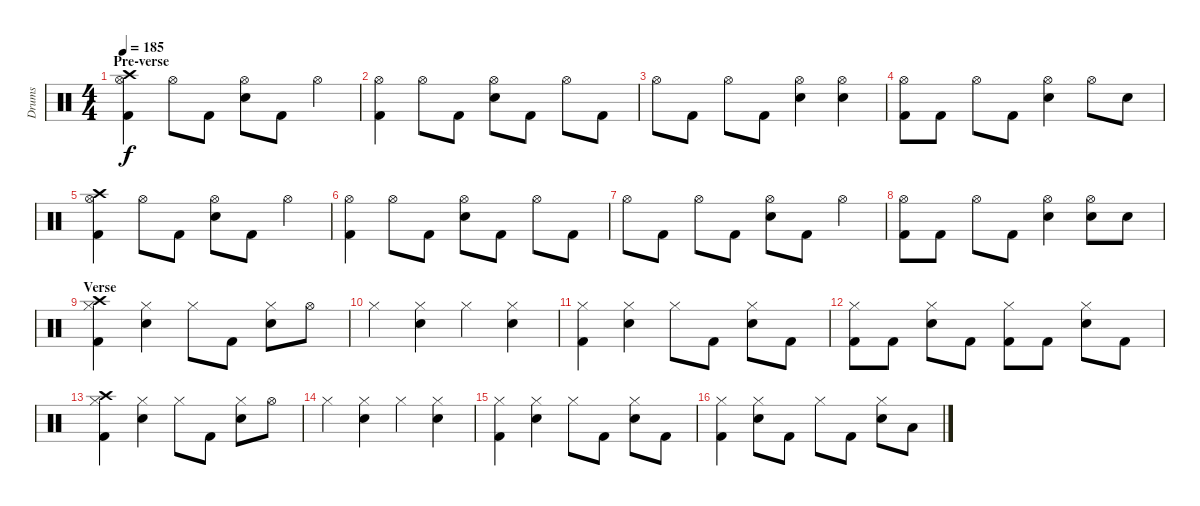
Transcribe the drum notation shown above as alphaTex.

\track ("Drums" "Drums") {instrument percussion}
\staff {score}
\articulation defaults
\ts (4 4)
\section ("" "Pre-verse")
\tempo 185
\clef neutral
\ks c
("Hi-Hat (open)" "Kick (hit) 2" "Crash high (hit)").4{dy f} "Hi-Hat (open)".8 "Kick (hit) 2".8 ("Hi-Hat (open)" "Electric Snare (hit)").8 "Kick (hit) 2".8 "Hi-Hat (open)".4 |
("Hi-Hat (open)" "Kick (hit) 2").4 "Hi-Hat (open)".8 "Kick (hit) 2".8 ("Hi-Hat (open)" "Electric Snare (hit)").8 "Kick (hit) 2".8 "Hi-Hat (open)".8 "Kick (hit) 2".8 |
"Hi-Hat (open)".8 "Kick (hit) 2".8 "Hi-Hat (open)".8 "Kick (hit) 2".8 ("Hi-Hat (open)" "Electric Snare (hit)").4 ("Hi-Hat (open)" "Electric Snare (hit)").4 |
("Hi-Hat (open)" "Kick (hit) 2").8 "Kick (hit) 2".8 "Hi-Hat (open)".8 "Kick (hit) 2".8 ("Hi-Hat (open)" "Electric Snare (hit)").4 "Hi-Hat (open)".8 "Electric Snare (hit)".8 |
("Hi-Hat (open)" "Kick (hit) 2" "Crash high (hit)").4 "Hi-Hat (open)".8 "Kick (hit) 2".8 ("Hi-Hat (open)" "Electric Snare (hit)").8 "Kick (hit) 2".8 "Hi-Hat (open)".4 |
("Hi-Hat (open)" "Kick (hit) 2").4 "Hi-Hat (open)".8 "Kick (hit) 2".8 ("Hi-Hat (open)" "Electric Snare (hit)").8 "Kick (hit) 2".8 "Hi-Hat (open)".8 "Kick (hit) 2".8 |
"Hi-Hat (open)".8 "Kick (hit) 2".8 "Hi-Hat (open)".8 "Kick (hit) 2".8 ("Hi-Hat (open)" "Electric Snare (hit)").8 "Kick (hit) 2".8 "Hi-Hat (open)".4 |
("Hi-Hat (open)" "Kick (hit) 2").8 "Kick (hit) 2".8 "Hi-Hat (open)".8 "Kick (hit) 2".8 ("Hi-Hat (open)" "Electric Snare (hit)").4 ("Hi-Hat (open)" "Electric Snare (hit)").8 "Electric Snare (hit)".8 |
\section ("" "Verse")
("Hi-Hat (closed)" "Kick (hit) 2" "Crash high (hit)").4 ("Hi-Hat (closed)" "Electric Snare (hit)").4 "Hi-Hat (closed)".8 "Kick (hit) 2".8 ("Hi-Hat (closed)" "Electric Snare (hit)").8 "Hi-Hat (open)".8 |
"Hi-Hat (closed)".4 ("Hi-Hat (closed)" "Electric Snare (hit)").4 "Hi-Hat (closed)".4 ("Hi-Hat (closed)" "Electric Snare (hit)").4 |
("Hi-Hat (closed)" "Kick (hit) 2").4 ("Hi-Hat (closed)" "Electric Snare (hit)").4 "Hi-Hat (closed)".8 "Kick (hit) 2".8 ("Hi-Hat (closed)" "Electric Snare (hit)").8 "Kick (hit) 2".8 |
("Hi-Hat (closed)" "Kick (hit) 2").8 "Kick (hit) 2".8 ("Hi-Hat (closed)" "Electric Snare (hit)").8 "Kick (hit) 2".8 ("Hi-Hat (closed)" "Kick (hit) 2").8 "Kick (hit) 2".8 ("Hi-Hat (closed)" "Electric Snare (hit)").8 "Kick (hit) 2".8 |
("Hi-Hat (closed)" "Kick (hit) 2" "Crash high (hit)").4 ("Hi-Hat (closed)" "Electric Snare (hit)").4 "Hi-Hat (closed)".8 "Kick (hit) 2".8 ("Hi-Hat (closed)" "Electric Snare (hit)").8 "Hi-Hat (open)".8 |
"Hi-Hat (closed)".4 ("Hi-Hat (closed)" "Electric Snare (hit)").4 "Hi-Hat (closed)".4 ("Hi-Hat (closed)" "Electric Snare (hit)").4 |
("Hi-Hat (closed)" "Kick (hit) 2").4 ("Hi-Hat (closed)" "Electric Snare (hit)").4 "Hi-Hat (closed)".8 "Kick (hit) 2".8 ("Hi-Hat (closed)" "Electric Snare (hit)").8 "Kick (hit) 2".8 |
("Hi-Hat (closed)" "Kick (hit) 2").4 ("Hi-Hat (closed)" "Electric Snare (hit)").8 "Kick (hit) 2".8 "Hi-Hat (closed)".8 "Kick (hit) 2".8 ("Hi-Hat (closed)" "Electric Snare (hit)").8 "Low Tom (hit)".8
